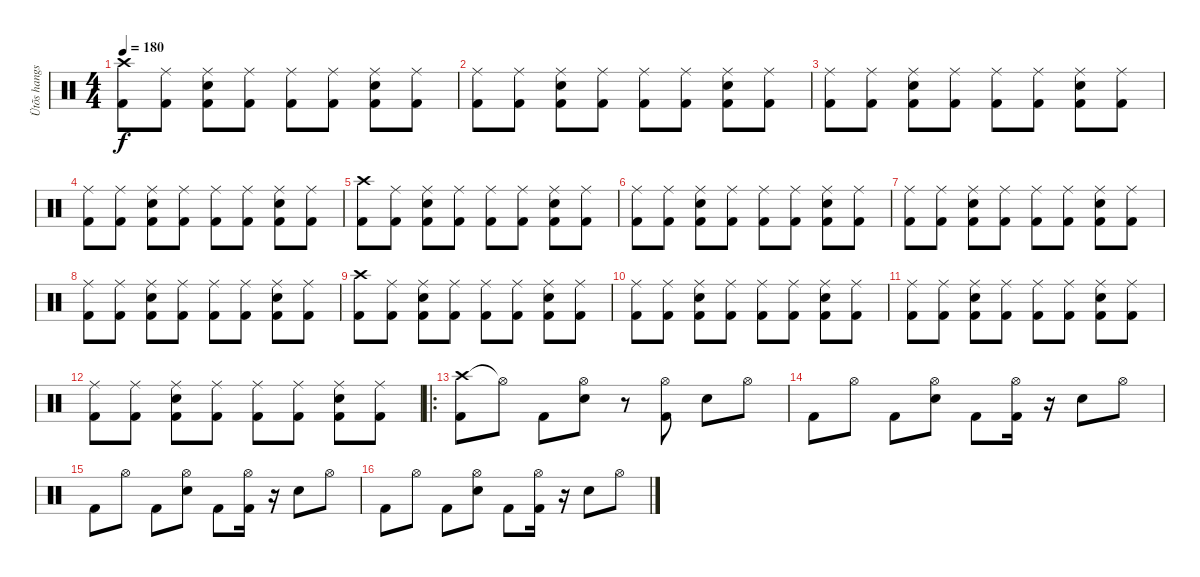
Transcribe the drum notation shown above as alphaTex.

\track ("Ütõs hangszer" "Ütõs hangs") {instrument percussion}
\staff {score}
\articulation defaults
\ts (4 4)
\tempo 180
\clef neutral
\ks c
("Crash high (hit)" "Kick (hit) 2").8{dy f} ("Ride (middle)" "Kick (hit) 2").8 ("Ride (middle)" "Electric Snare (hit)" "Kick (hit) 2").8 ("Ride (middle)" "Kick (hit) 2").8 ("Ride (middle)" "Kick (hit) 2").8 ("Ride (middle)" "Kick (hit) 2").8 ("Ride (middle)" "Electric Snare (hit)" "Kick (hit) 2").8 ("Ride (middle)" "Kick (hit) 2").8 |
("Ride (middle)" "Kick (hit) 2").8 ("Ride (middle)" "Kick (hit) 2").8 ("Ride (middle)" "Electric Snare (hit)" "Kick (hit) 2").8 ("Ride (middle)" "Kick (hit) 2").8 ("Ride (middle)" "Kick (hit) 2").8 ("Ride (middle)" "Kick (hit) 2").8 ("Ride (middle)" "Electric Snare (hit)" "Kick (hit) 2").8 ("Ride (middle)" "Kick (hit) 2").8 |
("Ride (middle)" "Kick (hit) 2").8 ("Ride (middle)" "Kick (hit) 2").8 ("Ride (middle)" "Electric Snare (hit)" "Kick (hit) 2").8 ("Ride (middle)" "Kick (hit) 2").8 ("Ride (middle)" "Kick (hit) 2").8 ("Ride (middle)" "Kick (hit) 2").8 ("Ride (middle)" "Electric Snare (hit)" "Kick (hit) 2").8 ("Ride (middle)" "Kick (hit) 2").8 |
("Ride (middle)" "Kick (hit) 2").8 ("Ride (middle)" "Kick (hit) 2").8 ("Ride (middle)" "Electric Snare (hit)" "Kick (hit) 2").8 ("Ride (middle)" "Kick (hit) 2").8 ("Ride (middle)" "Kick (hit) 2").8 ("Ride (middle)" "Kick (hit) 2").8 ("Ride (middle)" "Electric Snare (hit)" "Kick (hit) 2").8 ("Ride (middle)" "Kick (hit) 2").8 |
("Crash high (hit)" "Kick (hit) 2").8 ("Ride (middle)" "Kick (hit) 2").8 ("Ride (middle)" "Electric Snare (hit)" "Kick (hit) 2").8 ("Ride (middle)" "Kick (hit) 2").8 ("Ride (middle)" "Kick (hit) 2").8 ("Ride (middle)" "Kick (hit) 2").8 ("Ride (middle)" "Electric Snare (hit)" "Kick (hit) 2").8 ("Ride (middle)" "Kick (hit) 2").8 |
("Ride (middle)" "Kick (hit) 2").8 ("Ride (middle)" "Kick (hit) 2").8 ("Ride (middle)" "Electric Snare (hit)" "Kick (hit) 2").8 ("Ride (middle)" "Kick (hit) 2").8 ("Ride (middle)" "Kick (hit) 2").8 ("Ride (middle)" "Kick (hit) 2").8 ("Ride (middle)" "Electric Snare (hit)" "Kick (hit) 2").8 ("Ride (middle)" "Kick (hit) 2").8 |
("Ride (middle)" "Kick (hit) 2").8 ("Ride (middle)" "Kick (hit) 2").8 ("Ride (middle)" "Electric Snare (hit)" "Kick (hit) 2").8 ("Ride (middle)" "Kick (hit) 2").8 ("Ride (middle)" "Kick (hit) 2").8 ("Ride (middle)" "Kick (hit) 2").8 ("Ride (middle)" "Electric Snare (hit)" "Kick (hit) 2").8 ("Ride (middle)" "Kick (hit) 2").8 |
("Ride (middle)" "Kick (hit) 2").8 ("Ride (middle)" "Kick (hit) 2").8 ("Ride (middle)" "Electric Snare (hit)" "Kick (hit) 2").8 ("Ride (middle)" "Kick (hit) 2").8 ("Ride (middle)" "Kick (hit) 2").8 ("Ride (middle)" "Kick (hit) 2").8 ("Ride (middle)" "Electric Snare (hit)" "Kick (hit) 2").8 ("Ride (middle)" "Kick (hit) 2").8 |
("Crash high (hit)" "Kick (hit) 2").8 ("Ride (middle)" "Kick (hit) 2").8 ("Ride (middle)" "Electric Snare (hit)" "Kick (hit) 2").8 ("Ride (middle)" "Kick (hit) 2").8 ("Ride (middle)" "Kick (hit) 2").8 ("Ride (middle)" "Kick (hit) 2").8 ("Ride (middle)" "Electric Snare (hit)" "Kick (hit) 2").8 ("Ride (middle)" "Kick (hit) 2").8 |
("Ride (middle)" "Kick (hit) 2").8 ("Ride (middle)" "Kick (hit) 2").8 ("Ride (middle)" "Electric Snare (hit)" "Kick (hit) 2").8 ("Ride (middle)" "Kick (hit) 2").8 ("Ride (middle)" "Kick (hit) 2").8 ("Ride (middle)" "Kick (hit) 2").8 ("Ride (middle)" "Electric Snare (hit)" "Kick (hit) 2").8 ("Ride (middle)" "Kick (hit) 2").8 |
("Ride (middle)" "Kick (hit) 2").8 ("Ride (middle)" "Kick (hit) 2").8 ("Ride (middle)" "Electric Snare (hit)" "Kick (hit) 2").8 ("Ride (middle)" "Kick (hit) 2").8 ("Ride (middle)" "Kick (hit) 2").8 ("Ride (middle)" "Kick (hit) 2").8 ("Ride (middle)" "Electric Snare (hit)" "Kick (hit) 2").8 ("Ride (middle)" "Kick (hit) 2").8 |
("Ride (middle)" "Kick (hit) 2").8 ("Ride (middle)" "Kick (hit) 2").8 ("Ride (middle)" "Electric Snare (hit)" "Kick (hit) 2").8 ("Ride (middle)" "Kick (hit) 2").8 ("Ride (middle)" "Kick (hit) 2").8 ("Ride (middle)" "Kick (hit) 2").8 ("Ride (middle)" "Electric Snare (hit)" "Kick (hit) 2").8 ("Ride (middle)" "Kick (hit) 2").8 |
\ro
("Crash high (hit)" "Kick (hit) 2").8 "Hi-Hat (open)"{t}.8 "Kick (hit) 2".8 ("Hi-Hat (open)" "Electric Snare (hit)").8 r.8 ("Hi-Hat (open)" "Kick (hit) 2").8 "Electric Snare (hit)".8 "Hi-Hat (open)".8 |
"Kick (hit) 2".8 "Hi-Hat (open)".8 "Kick (hit) 2".8 ("Hi-Hat (open)" "Electric Snare (hit)").8 "Kick (hit) 2".8 ("Hi-Hat (open)" "Kick (hit) 2").16 r.16 "Electric Snare (hit)".8 "Hi-Hat (open)".8 |
"Kick (hit) 2".8 "Hi-Hat (open)".8 "Kick (hit) 2".8 ("Hi-Hat (open)" "Electric Snare (hit)").8 "Kick (hit) 2".8 ("Hi-Hat (open)" "Kick (hit) 2").16 r.16 "Electric Snare (hit)".8 "Hi-Hat (open)".8 |
"Kick (hit) 2".8 "Hi-Hat (open)".8 "Kick (hit) 2".8 ("Hi-Hat (open)" "Electric Snare (hit)").8 "Kick (hit) 2".8 ("Hi-Hat (open)" "Kick (hit) 2").16 r.16 "Electric Snare (hit)".8 "Hi-Hat (open)".8
